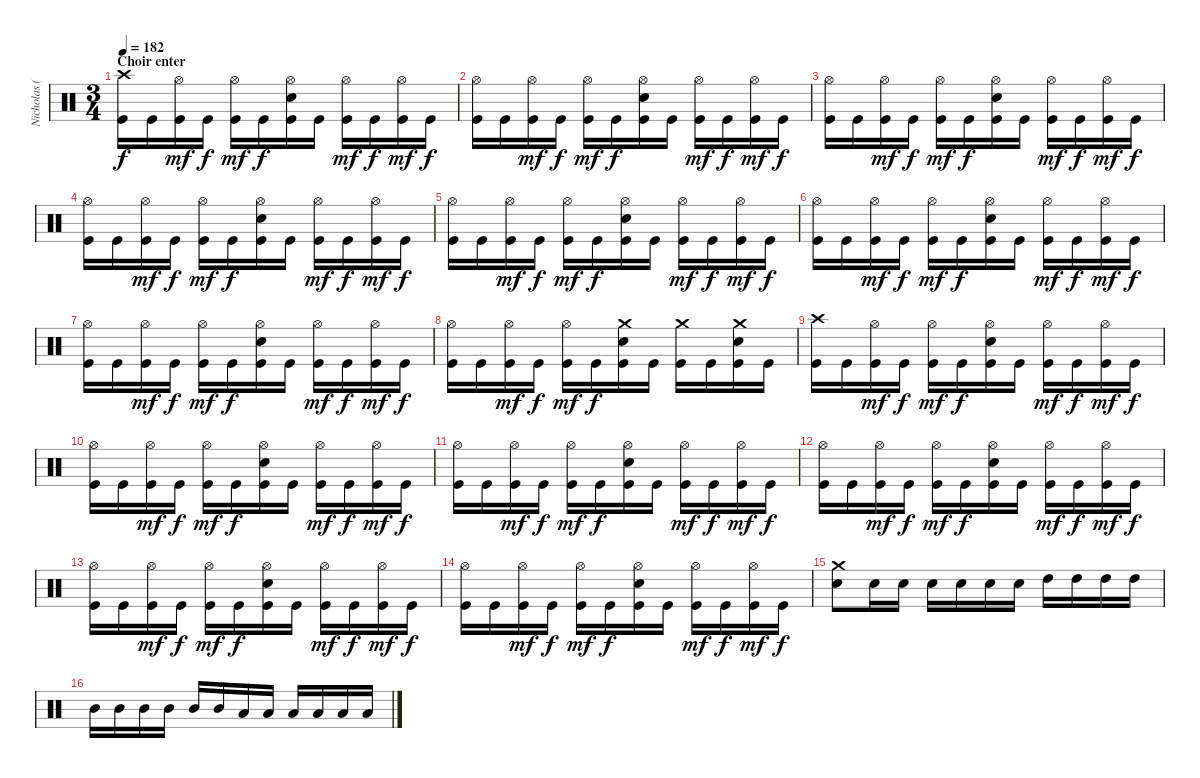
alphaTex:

\track ("Nicholas (Drums)" "Nicholas (") {instrument percussion}
\staff {score}
\articulation defaults
\ts (3 4)
\section ("" "Choir enter")
\tempo 182
\clef neutral
\ks c
("Crash high (hit)" "Kick (hit)").16{dy f} "Kick (hit)".16 ("Hi-Hat (open)" "Kick (hit)").16{dy mf} "Kick (hit)".16{dy f} ("Hi-Hat (open)" "Kick (hit)").16{dy mf} "Kick (hit)".16{dy f} ("Hi-Hat (open)" "Electric Snare (hit)" "Kick (hit)").16 "Kick (hit)".16 ("Hi-Hat (open)" "Kick (hit)").16{dy mf} "Kick (hit)".16{dy f} ("Hi-Hat (open)" "Kick (hit)").16{dy mf} "Kick (hit)".16{dy f} |
("Hi-Hat (open)" "Kick (hit)").16 "Kick (hit)".16 ("Hi-Hat (open)" "Kick (hit)").16{dy mf} "Kick (hit)".16{dy f} ("Hi-Hat (open)" "Kick (hit)").16{dy mf} "Kick (hit)".16{dy f} ("Hi-Hat (open)" "Electric Snare (hit)" "Kick (hit)").16 "Kick (hit)".16 ("Hi-Hat (open)" "Kick (hit)").16{dy mf} "Kick (hit)".16{dy f} ("Hi-Hat (open)" "Kick (hit)").16{dy mf} "Kick (hit)".16{dy f} |
("Hi-Hat (open)" "Kick (hit)").16 "Kick (hit)".16 ("Hi-Hat (open)" "Kick (hit)").16{dy mf} "Kick (hit)".16{dy f} ("Hi-Hat (open)" "Kick (hit)").16{dy mf} "Kick (hit)".16{dy f} ("Hi-Hat (open)" "Electric Snare (hit)" "Kick (hit)").16 "Kick (hit)".16 ("Hi-Hat (open)" "Kick (hit)").16{dy mf} "Kick (hit)".16{dy f} ("Hi-Hat (open)" "Kick (hit)").16{dy mf} "Kick (hit)".16{dy f} |
("Hi-Hat (open)" "Kick (hit)").16 "Kick (hit)".16 ("Hi-Hat (open)" "Kick (hit)").16{dy mf} "Kick (hit)".16{dy f} ("Hi-Hat (open)" "Kick (hit)").16{dy mf} "Kick (hit)".16{dy f} ("Hi-Hat (open)" "Electric Snare (hit)" "Kick (hit)").16 "Kick (hit)".16 ("Hi-Hat (open)" "Kick (hit)").16{dy mf} "Kick (hit)".16{dy f} ("Hi-Hat (open)" "Kick (hit)").16{dy mf} "Kick (hit)".16{dy f} |
("Hi-Hat (open)" "Kick (hit)").16 "Kick (hit)".16 ("Hi-Hat (open)" "Kick (hit)").16{dy mf} "Kick (hit)".16{dy f} ("Hi-Hat (open)" "Kick (hit)").16{dy mf} "Kick (hit)".16{dy f} ("Hi-Hat (open)" "Electric Snare (hit)" "Kick (hit)").16 "Kick (hit)".16 ("Hi-Hat (open)" "Kick (hit)").16{dy mf} "Kick (hit)".16{dy f} ("Hi-Hat (open)" "Kick (hit)").16{dy mf} "Kick (hit)".16{dy f} |
("Hi-Hat (open)" "Kick (hit)").16 "Kick (hit)".16 ("Hi-Hat (open)" "Kick (hit)").16{dy mf} "Kick (hit)".16{dy f} ("Hi-Hat (open)" "Kick (hit)").16{dy mf} "Kick (hit)".16{dy f} ("Hi-Hat (open)" "Electric Snare (hit)" "Kick (hit)").16 "Kick (hit)".16 ("Hi-Hat (open)" "Kick (hit)").16{dy mf} "Kick (hit)".16{dy f} ("Hi-Hat (open)" "Kick (hit)").16{dy mf} "Kick (hit)".16{dy f} |
("Hi-Hat (open)" "Kick (hit)").16 "Kick (hit)".16 ("Hi-Hat (open)" "Kick (hit)").16{dy mf} "Kick (hit)".16{dy f} ("Hi-Hat (open)" "Kick (hit)").16{dy mf} "Kick (hit)".16{dy f} ("Hi-Hat (open)" "Electric Snare (hit)" "Kick (hit)").16 "Kick (hit)".16 ("Hi-Hat (open)" "Kick (hit)").16{dy mf} "Kick (hit)".16{dy f} ("Hi-Hat (open)" "Kick (hit)").16{dy mf} "Kick (hit)".16{dy f} |
("Hi-Hat (open)" "Kick (hit)").16 "Kick (hit)".16 ("Hi-Hat (open)" "Kick (hit)").16{dy mf} "Kick (hit)".16{dy f} ("Hi-Hat (open)" "Kick (hit)").16{dy mf} "Kick (hit)".16{dy f} ("Crash medium (hit)" "Electric Snare (hit)" "Kick (hit)").16 "Kick (hit)".16 ("Crash medium (hit)" "Kick (hit)").16 "Kick (hit)".16 ("Crash medium (hit)" "Electric Snare (hit)" "Kick (hit)").16 "Kick (hit)".16 |
("Crash high (hit)" "Kick (hit)").16 "Kick (hit)".16 ("Hi-Hat (open)" "Kick (hit)").16{dy mf} "Kick (hit)".16{dy f} ("Hi-Hat (open)" "Kick (hit)").16{dy mf} "Kick (hit)".16{dy f} ("Hi-Hat (open)" "Electric Snare (hit)" "Kick (hit)").16 "Kick (hit)".16 ("Hi-Hat (open)" "Kick (hit)").16{dy mf} "Kick (hit)".16{dy f} ("Hi-Hat (open)" "Kick (hit)").16{dy mf} "Kick (hit)".16{dy f} |
("Hi-Hat (open)" "Kick (hit)").16 "Kick (hit)".16 ("Hi-Hat (open)" "Kick (hit)").16{dy mf} "Kick (hit)".16{dy f} ("Hi-Hat (open)" "Kick (hit)").16{dy mf} "Kick (hit)".16{dy f} ("Hi-Hat (open)" "Electric Snare (hit)" "Kick (hit)").16 "Kick (hit)".16 ("Hi-Hat (open)" "Kick (hit)").16{dy mf} "Kick (hit)".16{dy f} ("Hi-Hat (open)" "Kick (hit)").16{dy mf} "Kick (hit)".16{dy f} |
("Hi-Hat (open)" "Kick (hit)").16 "Kick (hit)".16 ("Hi-Hat (open)" "Kick (hit)").16{dy mf} "Kick (hit)".16{dy f} ("Hi-Hat (open)" "Kick (hit)").16{dy mf} "Kick (hit)".16{dy f} ("Hi-Hat (open)" "Electric Snare (hit)" "Kick (hit)").16 "Kick (hit)".16 ("Hi-Hat (open)" "Kick (hit)").16{dy mf} "Kick (hit)".16{dy f} ("Hi-Hat (open)" "Kick (hit)").16{dy mf} "Kick (hit)".16{dy f} |
("Hi-Hat (open)" "Kick (hit)").16 "Kick (hit)".16 ("Hi-Hat (open)" "Kick (hit)").16{dy mf} "Kick (hit)".16{dy f} ("Hi-Hat (open)" "Kick (hit)").16{dy mf} "Kick (hit)".16{dy f} ("Hi-Hat (open)" "Electric Snare (hit)" "Kick (hit)").16 "Kick (hit)".16 ("Hi-Hat (open)" "Kick (hit)").16{dy mf} "Kick (hit)".16{dy f} ("Hi-Hat (open)" "Kick (hit)").16{dy mf} "Kick (hit)".16{dy f} |
("Hi-Hat (open)" "Kick (hit)").16 "Kick (hit)".16 ("Hi-Hat (open)" "Kick (hit)").16{dy mf} "Kick (hit)".16{dy f} ("Hi-Hat (open)" "Kick (hit)").16{dy mf} "Kick (hit)".16{dy f} ("Hi-Hat (open)" "Electric Snare (hit)" "Kick (hit)").16 "Kick (hit)".16 ("Hi-Hat (open)" "Kick (hit)").16{dy mf} "Kick (hit)".16{dy f} ("Hi-Hat (open)" "Kick (hit)").16{dy mf} "Kick (hit)".16{dy f} |
("Hi-Hat (open)" "Kick (hit)").16 "Kick (hit)".16 ("Hi-Hat (open)" "Kick (hit)").16{dy mf} "Kick (hit)".16{dy f} ("Hi-Hat (open)" "Kick (hit)").16{dy mf} "Kick (hit)".16{dy f} ("Hi-Hat (open)" "Electric Snare (hit)" "Kick (hit)").16 "Kick (hit)".16 ("Hi-Hat (open)" "Kick (hit)").16{dy mf} "Kick (hit)".16{dy f} ("Hi-Hat (open)" "Kick (hit)").16{dy mf} "Kick (hit)".16{dy f} |
("Crash medium (hit)" "Electric Snare (hit)").8 "Electric Snare (hit)".16 "Electric Snare (hit)".16 "Electric Snare (hit)".16 "Electric Snare (hit)".16 "Electric Snare (hit)".16 "Electric Snare (hit)".16 "High Tom (hit)".16 "High Tom (hit)".16 "High Tom (hit)".16 "High Tom (hit)".16 |
"Mid Tom (hit)".16 "Mid Tom (hit)".16 "Mid Tom (hit)".16 "Mid Tom (hit)".16 "Mid Tom (hit)".16 "Mid Tom (hit)".16 "Low Tom (hit)".16 "Low Tom (hit)".16 "Low Tom (hit)".16 "Low Tom (hit)".16 "Low Tom (hit)".16 "Low Tom (hit)".16
